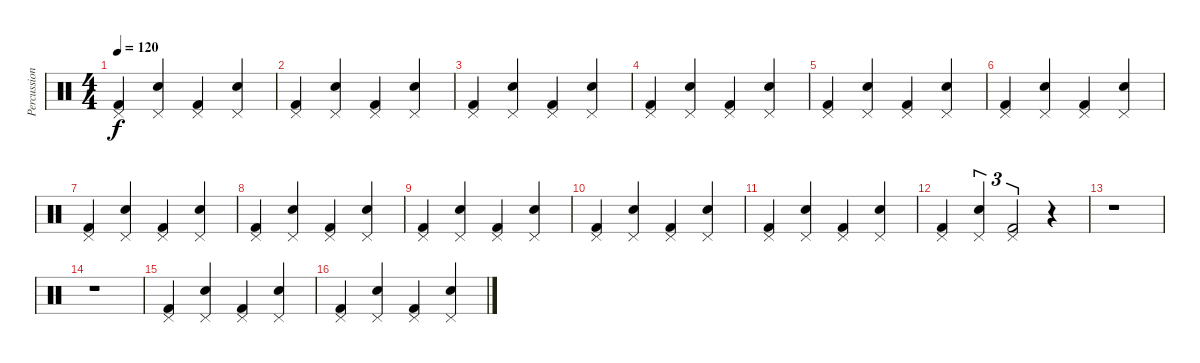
\track ("Percussion" "Percussion") {instrument percussion}
\staff {score}
\articulation defaults
\ts (4 4)
\tempo 120
\clef neutral
\ks c
("Pedal Hi-Hat (hit)" "Kick (hit) 2").4{dy f} ("Pedal Hi-Hat (hit)" "Snare (hit) 2").4 ("Pedal Hi-Hat (hit)" "Kick (hit) 2").4 ("Pedal Hi-Hat (hit)" "Snare (hit) 2").4 |
("Pedal Hi-Hat (hit)" "Kick (hit) 2").4 ("Pedal Hi-Hat (hit)" "Snare (hit) 2").4 ("Pedal Hi-Hat (hit)" "Kick (hit) 2").4 ("Pedal Hi-Hat (hit)" "Snare (hit) 2").4 |
("Pedal Hi-Hat (hit)" "Kick (hit) 2").4 ("Pedal Hi-Hat (hit)" "Snare (hit) 2").4 ("Pedal Hi-Hat (hit)" "Kick (hit) 2").4 ("Pedal Hi-Hat (hit)" "Snare (hit) 2").4 |
("Pedal Hi-Hat (hit)" "Kick (hit) 2").4 ("Pedal Hi-Hat (hit)" "Snare (hit) 2").4 ("Pedal Hi-Hat (hit)" "Kick (hit) 2").4 ("Pedal Hi-Hat (hit)" "Snare (hit) 2").4 |
("Pedal Hi-Hat (hit)" "Kick (hit) 2").4 ("Pedal Hi-Hat (hit)" "Snare (hit) 2").4 ("Pedal Hi-Hat (hit)" "Kick (hit) 2").4 ("Pedal Hi-Hat (hit)" "Snare (hit) 2").4 |
("Pedal Hi-Hat (hit)" "Kick (hit) 2").4 ("Pedal Hi-Hat (hit)" "Snare (hit) 2").4 ("Pedal Hi-Hat (hit)" "Kick (hit) 2").4 ("Pedal Hi-Hat (hit)" "Snare (hit) 2").4 |
("Pedal Hi-Hat (hit)" "Kick (hit) 2").4 ("Pedal Hi-Hat (hit)" "Snare (hit) 2").4 ("Pedal Hi-Hat (hit)" "Kick (hit) 2").4 ("Pedal Hi-Hat (hit)" "Snare (hit) 2").4 |
("Pedal Hi-Hat (hit)" "Kick (hit) 2").4 ("Pedal Hi-Hat (hit)" "Snare (hit) 2").4 ("Pedal Hi-Hat (hit)" "Kick (hit) 2").4 ("Pedal Hi-Hat (hit)" "Snare (hit) 2").4 |
("Pedal Hi-Hat (hit)" "Kick (hit) 2").4 ("Pedal Hi-Hat (hit)" "Snare (hit) 2").4 ("Pedal Hi-Hat (hit)" "Kick (hit) 2").4 ("Pedal Hi-Hat (hit)" "Snare (hit) 2").4 |
("Pedal Hi-Hat (hit)" "Kick (hit) 2").4 ("Pedal Hi-Hat (hit)" "Snare (hit) 2").4 ("Pedal Hi-Hat (hit)" "Kick (hit) 2").4 ("Pedal Hi-Hat (hit)" "Snare (hit) 2").4 |
("Pedal Hi-Hat (hit)" "Kick (hit) 2").4 ("Pedal Hi-Hat (hit)" "Snare (hit) 2").4 ("Pedal Hi-Hat (hit)" "Kick (hit) 2").4 ("Pedal Hi-Hat (hit)" "Snare (hit) 2").4 |
("Pedal Hi-Hat (hit)" "Kick (hit) 2").4 ("Pedal Hi-Hat (hit)" "Snare (hit) 2").4{tu (3 2)} ("Pedal Hi-Hat (hit)" "Kick (hit) 2").2{tu (3 2)} r.4 |
r.1 |
r.1 |
("Pedal Hi-Hat (hit)" "Kick (hit) 2").4 ("Pedal Hi-Hat (hit)" "Snare (hit) 2").4 ("Pedal Hi-Hat (hit)" "Kick (hit) 2").4 ("Pedal Hi-Hat (hit)" "Snare (hit) 2").4 |
("Pedal Hi-Hat (hit)" "Kick (hit) 2").4 ("Pedal Hi-Hat (hit)" "Snare (hit) 2").4 ("Pedal Hi-Hat (hit)" "Kick (hit) 2").4 ("Pedal Hi-Hat (hit)" "Snare (hit) 2").4
